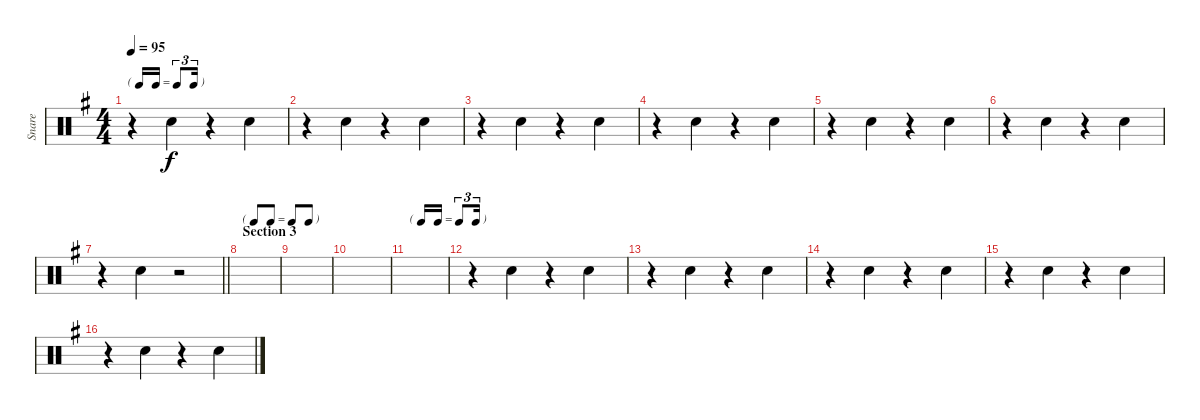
\track ("Snare" "Snare") {instrument percussion}
\staff {score}
\articulation defaults
\ts (4 4)
\tf triplet16th
\tempo 95
\clef neutral
\ks eminor
r.4{dy f} "Snare (hit) 2".4 r.4 "Snare (hit) 2".4 |
r.4 "Snare (hit) 2".4 r.4 "Snare (hit) 2".4 |
r.4 "Snare (hit) 2".4 r.4 "Snare (hit) 2".4 |
r.4 "Snare (hit) 2".4 r.4 "Snare (hit) 2".4 |
r.4 "Snare (hit) 2".4 r.4 "Snare (hit) 2".4 |
r.4 "Snare (hit) 2".4 r.4 "Snare (hit) 2".4 |
\barLineRight lightlight
r.4 "Snare (hit) 2".4 r.2 |
\tf none
\section ("" "Section 3")
|
|
|
\tf triplet16th
|
r.4 "Snare (hit) 2".4 r.4 "Snare (hit) 2".4 |
r.4 "Snare (hit) 2".4 r.4 "Snare (hit) 2".4 |
r.4 "Snare (hit) 2".4 r.4 "Snare (hit) 2".4 |
r.4 "Snare (hit) 2".4 r.4 "Snare (hit) 2".4 |
r.4 "Snare (hit) 2".4 r.4 "Snare (hit) 2".4
